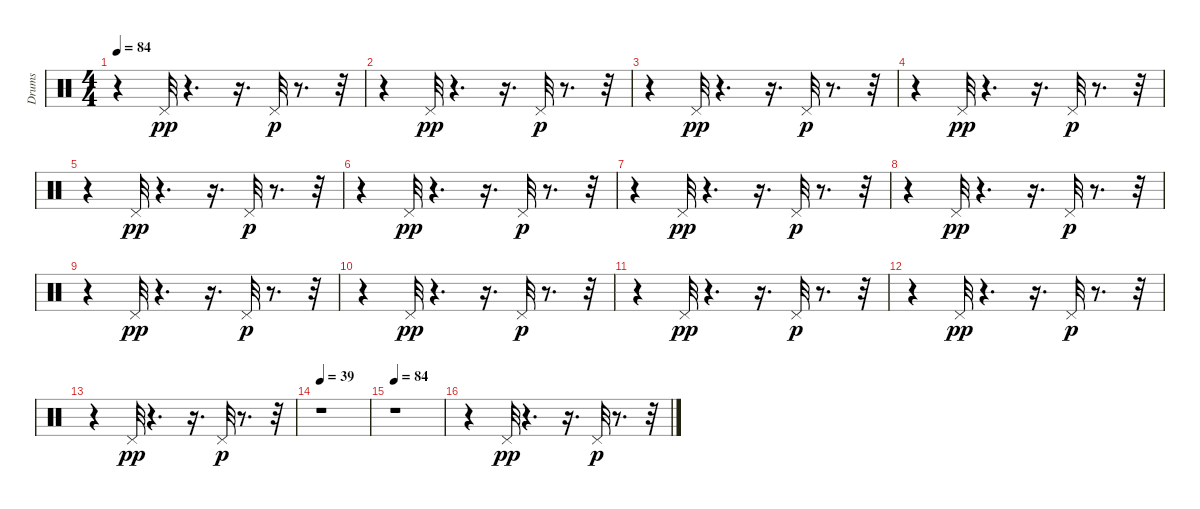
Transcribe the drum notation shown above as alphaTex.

\track ("Drums" "Drums") {instrument percussion}
\staff {score}
\articulation defaults
\ts (4 4)
\tempo 84
\clef neutral
\ks c
r.4{dy p} "Pedal Hi-Hat (hit)".32{dy pp} r.4{d} r.16{d} "Pedal Hi-Hat (hit)".32{dy p} r.8{d} r.32 |
r.4 "Pedal Hi-Hat (hit)".32{dy pp} r.4{d} r.16{d} "Pedal Hi-Hat (hit)".32{dy p} r.8{d} r.32 |
r.4 "Pedal Hi-Hat (hit)".32{dy pp} r.4{d} r.16{d} "Pedal Hi-Hat (hit)".32{dy p} r.8{d} r.32 |
r.4 "Pedal Hi-Hat (hit)".32{dy pp} r.4{d} r.16{d} "Pedal Hi-Hat (hit)".32{dy p} r.8{d} r.32 |
r.4 "Pedal Hi-Hat (hit)".32{dy pp} r.4{d} r.16{d} "Pedal Hi-Hat (hit)".32{dy p} r.8{d} r.32 |
r.4 "Pedal Hi-Hat (hit)".32{dy pp} r.4{d} r.16{d} "Pedal Hi-Hat (hit)".32{dy p} r.8{d} r.32 |
r.4 "Pedal Hi-Hat (hit)".32{dy pp} r.4{d} r.16{d} "Pedal Hi-Hat (hit)".32{dy p} r.8{d} r.32 |
r.4 "Pedal Hi-Hat (hit)".32{dy pp} r.4{d} r.16{d} "Pedal Hi-Hat (hit)".32{dy p} r.8{d} r.32 |
r.4 "Pedal Hi-Hat (hit)".32{dy pp} r.4{d} r.16{d} "Pedal Hi-Hat (hit)".32{dy p} r.8{d} r.32 |
r.4 "Pedal Hi-Hat (hit)".32{dy pp} r.4{d} r.16{d} "Pedal Hi-Hat (hit)".32{dy p} r.8{d} r.32 |
r.4 "Pedal Hi-Hat (hit)".32{dy pp} r.4{d} r.16{d} "Pedal Hi-Hat (hit)".32{dy p} r.8{d} r.32 |
r.4 "Pedal Hi-Hat (hit)".32{dy pp} r.4{d} r.16{d} "Pedal Hi-Hat (hit)".32{dy p} r.8{d} r.32 |
r.4 "Pedal Hi-Hat (hit)".32{dy pp} r.4{d} r.16{d} "Pedal Hi-Hat (hit)".32{dy p} r.8{d} r.32 |
\tempo 39
r.1 |
\tempo 84
r.1 |
r.4 "Pedal Hi-Hat (hit)".32{dy pp} r.4{d} r.16{d} "Pedal Hi-Hat (hit)".32{dy p} r.8{d} r.32
